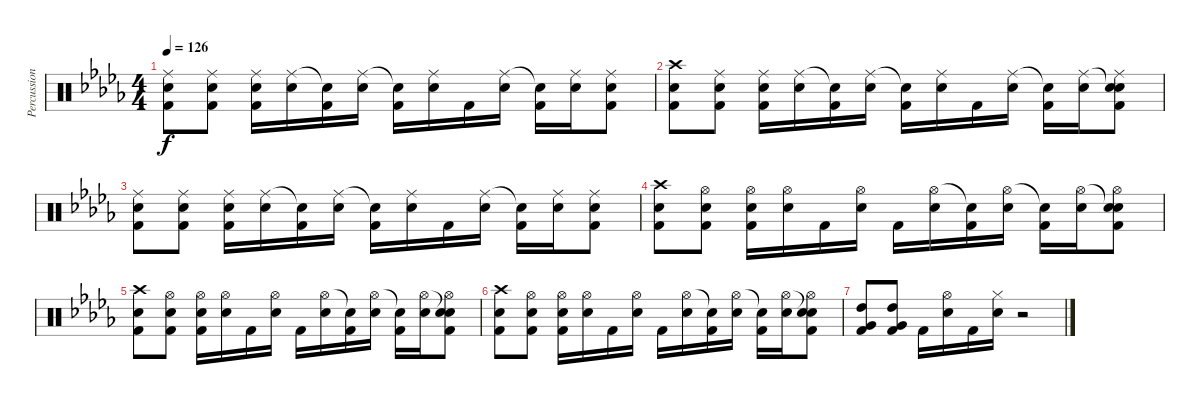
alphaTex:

\track ("Percussion" "Percussion") {instrument percussion}
\staff {score}
\articulation defaults
\ts (4 4)
\tempo 126
\clef neutral
\ks db
("Ride (middle)" "Electric Snare (hit)" "Kick (hit) 2").8{dy f} ("Electric Snare (hit)" "Kick (hit) 2" "Ride (middle)").8 ("Ride (middle)" "Electric Snare (hit)" "Kick (hit) 2").16 ("Ride (middle)" "Electric Snare (hit)").16 ("Snare (hit)"{t} "Kick (hit) 2").16 ("Ride (middle)" "Electric Snare (hit)").16 ("Snare (hit)"{t} "Kick (hit) 2").16 ("Ride (middle)" "Electric Snare (hit)").16 "Kick (hit) 2".16 ("Ride (middle)" "Electric Snare (hit)").16 ("Snare (hit)"{t} "Kick (hit) 2").16 ("Ride (middle)" "Electric Snare (hit)").16 ("Ride (middle)" "Electric Snare (hit)" "Kick (hit) 2").8 |
("Crash high (hit)" "Electric Snare (hit)" "Kick (hit) 2").8 ("Electric Snare (hit)" "Kick (hit) 2" "Ride (middle)").8 ("Ride (middle)" "Electric Snare (hit)" "Kick (hit) 2").16 ("Ride (middle)" "Electric Snare (hit)").16 ("Snare (hit)"{t} "Kick (hit) 2").16 ("Ride (middle)" "Electric Snare (hit)").16 ("Snare (hit)"{t} "Kick (hit) 2").16 ("Ride (middle)" "Electric Snare (hit)").16 "Kick (hit) 2".16 ("Ride (middle)" "Electric Snare (hit)").16 ("Snare (hit)"{t} "Kick (hit) 2").16 ("Ride (middle)" "Electric Snare (hit)").16 ("Snare (hit)"{t} "Ride (middle)" "Electric Snare (hit)" "Kick (hit) 2").8 |
("Ride (middle)" "Electric Snare (hit)" "Kick (hit) 2").8 ("Electric Snare (hit)" "Kick (hit) 2" "Ride (middle)").8 ("Ride (middle)" "Electric Snare (hit)" "Kick (hit) 2").16 ("Ride (middle)" "Electric Snare (hit)").16 ("Snare (hit)"{t} "Kick (hit) 2").16 ("Ride (middle)" "Electric Snare (hit)").16 ("Snare (hit)"{t} "Kick (hit) 2").16 ("Ride (middle)" "Electric Snare (hit)").16 "Kick (hit) 2".16 ("Ride (middle)" "Electric Snare (hit)").16 ("Snare (hit)"{t} "Kick (hit) 2").16 ("Ride (middle)" "Electric Snare (hit)").16 ("Ride (middle)" "Electric Snare (hit)" "Kick (hit) 2").8 |
("Crash high (hit)" "Electric Snare (hit)" "Kick (hit) 2").8 ("Electric Snare (hit)" "Kick (hit) 2" "Hi-Hat (open)").8 ("Hi-Hat (open)" "Electric Snare (hit)" "Kick (hit) 2").16 ("Hi-Hat (open)" "Electric Snare (hit)").16 "Kick (hit) 2".16 ("Hi-Hat (open)" "Electric Snare (hit)").16 "Kick (hit) 2".16 ("Hi-Hat (open)" "Electric Snare (hit)").16 ("Snare (hit)"{t} "Kick (hit) 2").16 ("Hi-Hat (open)" "Electric Snare (hit)").16 ("Snare (hit)"{t} "Kick (hit) 2").16 ("Hi-Hat (open)" "Electric Snare (hit)").16 ("Snare (hit)"{t} "Hi-Hat (open)" "Electric Snare (hit)" "Kick (hit) 2").8 |
("Crash high (hit)" "Electric Snare (hit)" "Kick (hit) 2").8 ("Electric Snare (hit)" "Kick (hit) 2" "Hi-Hat (open)").8 ("Hi-Hat (open)" "Electric Snare (hit)" "Kick (hit) 2").16 ("Hi-Hat (open)" "Electric Snare (hit)").16 "Kick (hit) 2".16 ("Hi-Hat (open)" "Electric Snare (hit)").16 "Kick (hit) 2".16 ("Hi-Hat (open)" "Electric Snare (hit)").16 ("Snare (hit)"{t} "Kick (hit) 2").16 ("Hi-Hat (open)" "Electric Snare (hit)").16 ("Snare (hit)"{t} "Kick (hit) 2").16 ("Hi-Hat (open)" "Electric Snare (hit)").16 ("Snare (hit)"{t} "Hi-Hat (open)" "Electric Snare (hit)" "Kick (hit) 2").8 |
("Crash high (hit)" "Electric Snare (hit)" "Kick (hit) 2").8 ("Electric Snare (hit)" "Kick (hit) 2" "Hi-Hat (open)").8 ("Hi-Hat (open)" "Electric Snare (hit)" "Kick (hit) 2").16 ("Hi-Hat (open)" "Electric Snare (hit)").16 "Kick (hit) 2".16 ("Hi-Hat (open)" "Electric Snare (hit)").16 "Kick (hit) 2".16 ("Hi-Hat (open)" "Electric Snare (hit)").16 ("Snare (hit)"{t} "Kick (hit) 2").16 ("Hi-Hat (open)" "Electric Snare (hit)").16 ("Snare (hit)"{t} "Kick (hit) 2").16 ("Hi-Hat (open)" "Electric Snare (hit)").16 ("Snare (hit)"{t} "Hi-Hat (open)" "Electric Snare (hit)" "Kick (hit) 2").8 |
("High Tom (hit)" "Very Low Tom (hit)" "Kick (hit) 2").8 ("High Tom (hit)" "Very Low Tom (hit)" "Kick (hit) 2").8 "Kick (hit) 2".16 ("Hi-Hat (open)" "Electric Snare (hit)").16 "Kick (hit) 2".16 ("Hi-Hat (closed)" "Electric Snare (hit)").16 r.2
